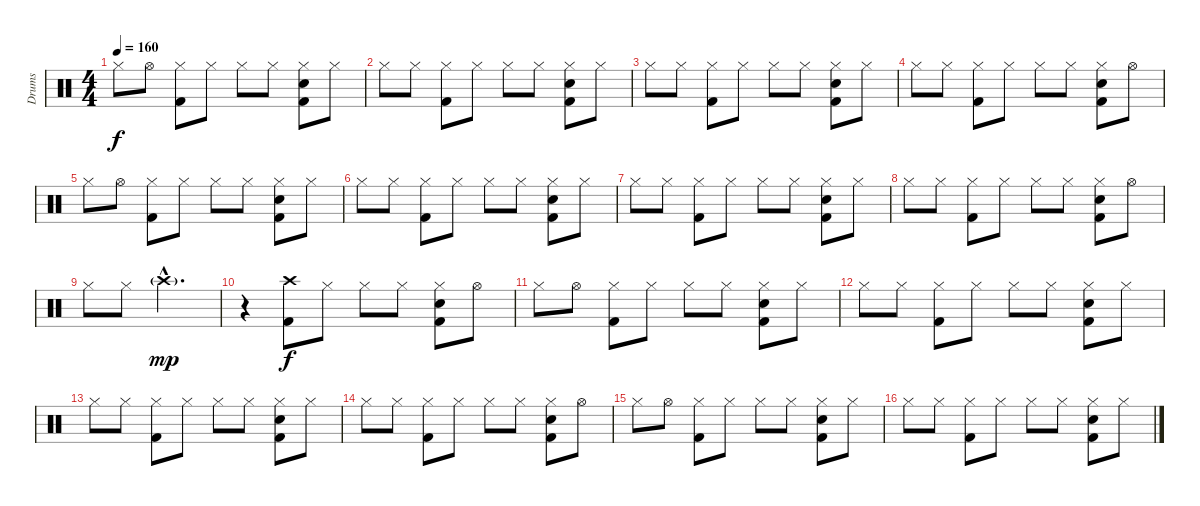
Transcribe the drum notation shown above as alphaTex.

\track ("Drums" "Drums") {instrument percussion}
\staff {score}
\articulation defaults
\ts (4 4)
\tempo 160
\clef neutral
\ks c "Hi-Hat (closed)".8{dy f} "Hi-Hat (open)".8
("Kick (hit) 2" "Hi-Hat (closed)").8 "Hi-Hat (closed)".8 "Hi-Hat (closed)".8 "Hi-Hat (closed)".8 ("Snare (hit) 2" "Kick (hit) 2" "Hi-Hat (closed)").8 "Hi-Hat (closed)".8 |
"Hi-Hat (closed)".8 "Hi-Hat (closed)".8 ("Kick (hit) 2" "Hi-Hat (closed)").8 "Hi-Hat (closed)".8 "Hi-Hat (closed)".8 "Hi-Hat (closed)".8 ("Snare (hit) 2" "Kick (hit) 2" "Hi-Hat (closed)").8 "Hi-Hat (closed)".8 |
"Hi-Hat (closed)".8 "Hi-Hat (closed)".8 ("Kick (hit) 2" "Hi-Hat (closed)").8 "Hi-Hat (closed)".8 "Hi-Hat (closed)".8 "Hi-Hat (closed)".8 ("Snare (hit) 2" "Kick (hit) 2" "Hi-Hat (closed)").8 "Hi-Hat (closed)".8 |
"Hi-Hat (closed)".8 "Hi-Hat (closed)".8 ("Kick (hit) 2" "Hi-Hat (closed)").8 "Hi-Hat (closed)".8 "Hi-Hat (closed)".8 "Hi-Hat (closed)".8 ("Snare (hit) 2" "Kick (hit) 2" "Hi-Hat (closed)").8 "Hi-Hat (open)".8 |
"Hi-Hat (closed)".8 "Hi-Hat (open)".8 ("Kick (hit) 2" "Hi-Hat (closed)").8 "Hi-Hat (closed)".8 "Hi-Hat (closed)".8 "Hi-Hat (closed)".8 ("Snare (hit) 2" "Kick (hit) 2" "Hi-Hat (closed)").8 "Hi-Hat (closed)".8 |
"Hi-Hat (closed)".8 "Hi-Hat (closed)".8 ("Kick (hit) 2" "Hi-Hat (closed)").8 "Hi-Hat (closed)".8 "Hi-Hat (closed)".8 "Hi-Hat (closed)".8 ("Snare (hit) 2" "Kick (hit) 2" "Hi-Hat (closed)").8 "Hi-Hat (closed)".8 |
"Hi-Hat (closed)".8 "Hi-Hat (closed)".8 ("Kick (hit) 2" "Hi-Hat (closed)").8 "Hi-Hat (closed)".8 "Hi-Hat (closed)".8 "Hi-Hat (closed)".8 ("Snare (hit) 2" "Kick (hit) 2" "Hi-Hat (closed)").8 "Hi-Hat (closed)".8 |
"Hi-Hat (closed)".8 "Hi-Hat (closed)".8 ("Kick (hit) 2" "Hi-Hat (closed)").8 "Hi-Hat (closed)".8 "Hi-Hat (closed)".8 "Hi-Hat (closed)".8 ("Snare (hit) 2" "Kick (hit) 2" "Hi-Hat (closed)").8 "Hi-Hat (open)".8 |
"Hi-Hat (closed)".8 "Hi-Hat (closed)".8 "Crash high (hit)"{g hac}.2{d dy mp} |
r.4 ("Crash high (hit)" "Kick (hit) 2").8{dy f} "Hi-Hat (closed)".8 "Hi-Hat (closed)".8 "Hi-Hat (closed)".8 ("Snare (hit) 2" "Kick (hit) 2" "Hi-Hat (closed)").8 "Hi-Hat (open)".8 |
"Hi-Hat (closed)".8 "Hi-Hat (open)".8 ("Kick (hit) 2" "Hi-Hat (closed)").8 "Hi-Hat (closed)".8 "Hi-Hat (closed)".8 "Hi-Hat (closed)".8 ("Snare (hit) 2" "Kick (hit) 2" "Hi-Hat (closed)").8 "Hi-Hat (closed)".8 |
"Hi-Hat (closed)".8 "Hi-Hat (closed)".8 ("Kick (hit) 2" "Hi-Hat (closed)").8 "Hi-Hat (closed)".8 "Hi-Hat (closed)".8 "Hi-Hat (closed)".8 ("Snare (hit) 2" "Kick (hit) 2" "Hi-Hat (closed)").8 "Hi-Hat (closed)".8 |
"Hi-Hat (closed)".8 "Hi-Hat (closed)".8 ("Kick (hit) 2" "Hi-Hat (closed)").8 "Hi-Hat (closed)".8 "Hi-Hat (closed)".8 "Hi-Hat (closed)".8 ("Snare (hit) 2" "Kick (hit) 2" "Hi-Hat (closed)").8 "Hi-Hat (closed)".8 |
"Hi-Hat (closed)".8 "Hi-Hat (closed)".8 ("Kick (hit) 2" "Hi-Hat (closed)").8 "Hi-Hat (closed)".8 "Hi-Hat (closed)".8 "Hi-Hat (closed)".8 ("Snare (hit) 2" "Kick (hit) 2" "Hi-Hat (closed)").8 "Hi-Hat (open)".8 |
"Hi-Hat (closed)".8 "Hi-Hat (open)".8 ("Kick (hit) 2" "Hi-Hat (closed)").8 "Hi-Hat (closed)".8 "Hi-Hat (closed)".8 "Hi-Hat (closed)".8 ("Snare (hit) 2" "Kick (hit) 2" "Hi-Hat (closed)").8 "Hi-Hat (closed)".8 |
"Hi-Hat (closed)".8 "Hi-Hat (closed)".8 ("Kick (hit) 2" "Hi-Hat (closed)").8 "Hi-Hat (closed)".8 "Hi-Hat (closed)".8 "Hi-Hat (closed)".8 ("Snare (hit) 2" "Kick (hit) 2" "Hi-Hat (closed)").8 "Hi-Hat (closed)".8
